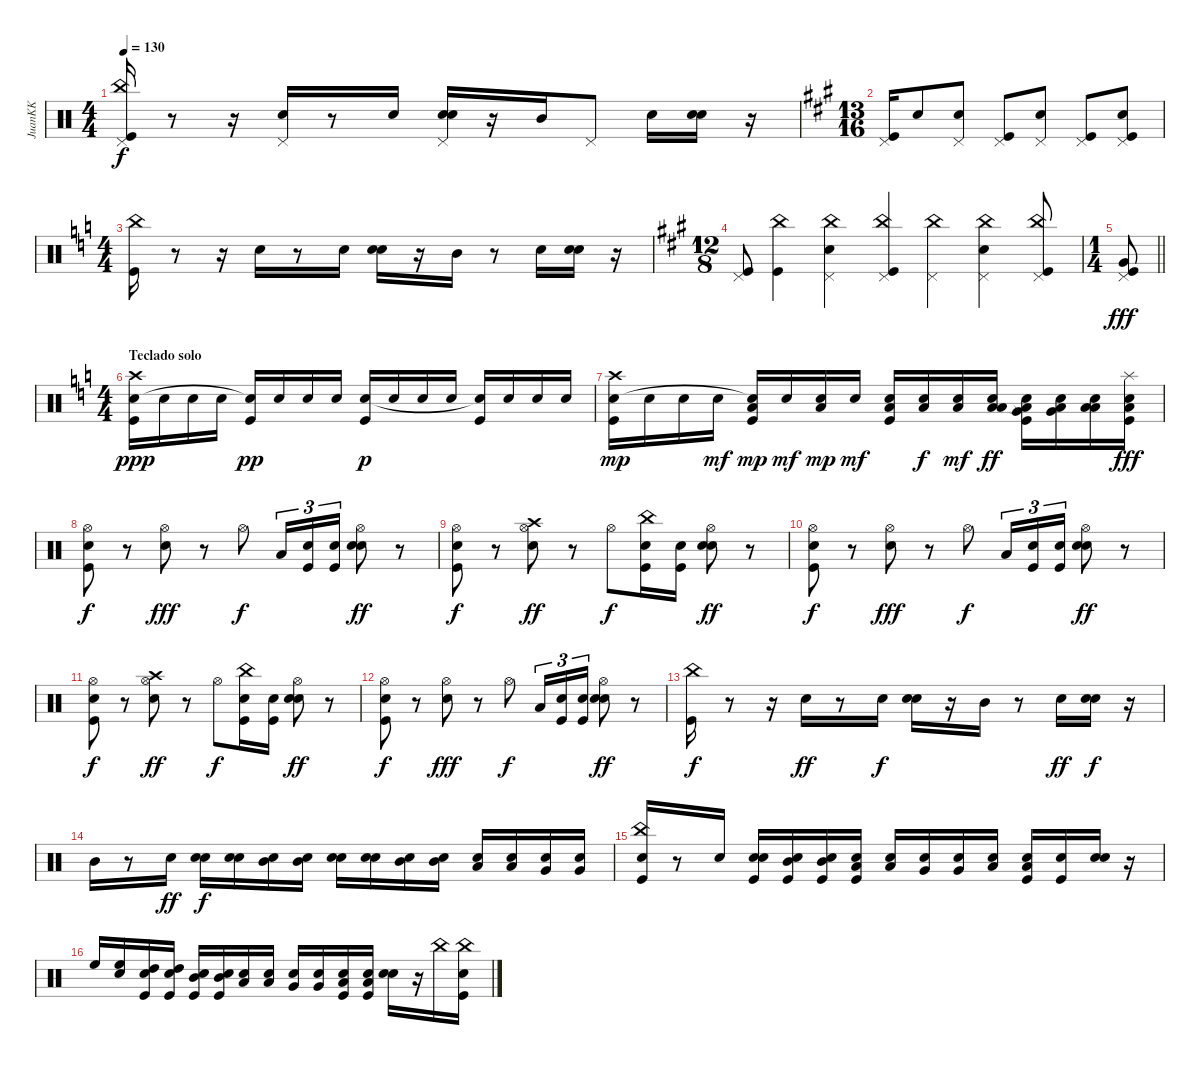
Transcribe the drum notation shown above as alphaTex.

\track ("JuanKK" "JuanKK") {instrument percussion}
\staff {score}
\articulation defaults
\ts (4 4)
\tempo 130
\clef neutral
\ks c
("Kick (hit)" "China (hit)" "Pedal Hi-Hat (hit)").16{dy f} r.8 r.16 ("Electric Snare (hit)" "Pedal Hi-Hat (hit)").16 r.8 "Electric Snare (hit)".16 ("Snare (hit)" "Electric Snare (hit)" "Pedal Hi-Hat (hit)").16 r.16 "Mid Tom (hit)".16 "Pedal Hi-Hat (hit)".8 "Electric Snare (hit)".16 ("Snare (hit)" "Electric Snare (hit)").16 r.16 |
\ts (13 16)
\ks a
("Kick (hit)" "Pedal Hi-Hat (hit)").16 "Electric Snare (hit)".8 ("Electric Snare (hit)" "Pedal Hi-Hat (hit)").8 ("Kick (hit)" "Pedal Hi-Hat (hit)").8 ("Electric Snare (hit)" "Pedal Hi-Hat (hit)").8 ("Kick (hit)" "Pedal Hi-Hat (hit)").8 ("Kick (hit)" "Electric Snare (hit)" "Pedal Hi-Hat (hit)").8 |
\ts (4 4)
\ks c
("Kick (hit)" "China (hit)").16 r.8 r.16 "Electric Snare (hit)".16 r.8 "Electric Snare (hit)".16 ("Snare (hit)" "Electric Snare (hit)").16 r.16 "Mid Tom (hit)".16 r.8 "Electric Snare (hit)".16 ("Snare (hit)" "Electric Snare (hit)").16 r.16 |
\ts (12 8)
\ks a
("Kick (hit)" "Pedal Hi-Hat (hit)").8 ("Kick (hit)" "China (hit)").4 ("Electric Snare (hit)" "Pedal Hi-Hat (hit)" "China (hit)").4 ("Kick (hit)" "Pedal Hi-Hat (hit)" "China (hit)").4 ("Pedal Hi-Hat (hit)" "China (hit)").4 ("Electric Snare (hit)" "Pedal Hi-Hat (hit)" "China (hit)").4 ("Kick (hit)" "Pedal Hi-Hat (hit)" "China (hit)").8 |
\ts (1 4)
\barLineRight lightlight
("Very Low Tom (hit)" "Kick (hit)" "Pedal Hi-Hat (hit)").8{dy fff} |
\ts (4 4)
\section ("" "Teclado solo")
\ks c
("Kick (hit)" "Electric Snare (hit)" "Crash high (hit)").16{dy ppp} "Electric Snare (hit)".16 "Electric Snare (hit)".16 "Electric Snare (hit)".16 ("Kick (hit)" "Snare (hit)"{t}).16{dy pp} "Electric Snare (hit)".16 "Electric Snare (hit)".16 "Electric Snare (hit)".16 ("Kick (hit)" "Electric Snare (hit)").16{dy p} "Electric Snare (hit)".16 "Electric Snare (hit)".16 "Electric Snare (hit)".16 ("Kick (hit)" "Snare (hit)"{t}).16 "Electric Snare (hit)".16 "Electric Snare (hit)".16 "Electric Snare (hit)".16 |
("Kick (hit)" "Electric Snare (hit)" "Crash high (hit)").16{dy mp} "Electric Snare (hit)".16 "Electric Snare (hit)".16 "Electric Snare (hit)".16{dy mf} ("Kick (hit)" "Snare (hit)"{t} "Low Floor Tom (hit)").16{dy mp} "Electric Snare (hit)".16{dy mf} ("Electric Snare (hit)" "Low Floor Tom (hit)").16{dy mp} "Electric Snare (hit)".16{dy mf} ("Kick (hit)" "Electric Snare (hit)" "Low Floor Tom (hit)").16 ("Low Floor Tom (hit)" "Electric Snare (hit)").16{dy f} ("Electric Snare (hit)" "Low Floor Tom (hit)").16{dy mf} ("Low Floor Tom (hit)" "Electric Snare (hit)" "Low Floor Tom (hit)").16{dy ff} ("Kick (hit)" "Very Low Tom (hit)" "Snare (hit)"{t} "Low Floor Tom (hit)").16 ("Very Low Tom (hit)" "Electric Snare (hit)" "Low Floor Tom (hit)").16 ("Low Floor Tom (hit)" "Electric Snare (hit)" "Low Floor Tom (hit)").16 ("Kick (hit)" "Low Floor Tom (hit)" "Electric Snare (hit)" "Splash (hit)").16{dy fff} |
("Snare (hit)" "Kick (hit)" "Hi-Hat (open)").8{dy f} r.8 ("Electric Snare (hit)" "Hi-Hat (open)").8{dy fff} r.8 "Hi-Hat (open)".8{dy f} "Low Floor Tom (hit)".16{tu (3 2)} ("Snare (hit)" "Kick (hit)").16{tu (3 2)} ("Snare (hit)" "Kick (hit)").16{tu (3 2)} ("Snare (hit)" "Electric Snare (hit)" "Hi-Hat (open)").8{dy ff} r.8 |
("Snare (hit)" "Kick (hit)" "Hi-Hat (open)").8{dy f} r.8 ("Electric Snare (hit)" "Hi-Hat (open)" "Crash high (hit)").8{dy ff} r.8 "Hi-Hat (open)".8{dy f} ("Snare (hit)" "Kick (hit)" "China (hit)").16 ("Snare (hit)" "Kick (hit)").16 ("Snare (hit)" "Electric Snare (hit)" "Hi-Hat (open)").8{dy ff} r.8 |
("Snare (hit)" "Kick (hit)" "Hi-Hat (open)").8{dy f} r.8 ("Electric Snare (hit)" "Hi-Hat (open)").8{dy fff} r.8 "Hi-Hat (open)".8{dy f} "Low Floor Tom (hit)".16{tu (3 2)} ("Snare (hit)" "Kick (hit)").16{tu (3 2)} ("Snare (hit)" "Kick (hit)").16{tu (3 2)} ("Snare (hit)" "Electric Snare (hit)" "Hi-Hat (open)").8{dy ff} r.8 |
("Snare (hit)" "Kick (hit)" "Hi-Hat (open)").8{dy f} r.8 ("Electric Snare (hit)" "Hi-Hat (open)" "Crash high (hit)").8{dy ff} r.8 "Hi-Hat (open)".8{dy f} ("Snare (hit)" "Kick (hit)" "China (hit)").16 ("Snare (hit)" "Kick (hit)").16 ("Snare (hit)" "Electric Snare (hit)" "Hi-Hat (open)").8{dy ff} r.8 |
("Snare (hit)" "Kick (hit)" "Hi-Hat (open)").8{dy f} r.8 ("Electric Snare (hit)" "Hi-Hat (open)").8{dy fff} r.8 "Hi-Hat (open)".8{dy f} "Low Floor Tom (hit)".16{tu (3 2)} ("Snare (hit)" "Kick (hit)").16{tu (3 2)} ("Snare (hit)" "Kick (hit)").16{tu (3 2)} ("Snare (hit)" "Electric Snare (hit)" "Hi-Hat (open)").8{dy ff} r.8 |
("Kick (hit)" "China (hit)").16{dy f} r.8 r.16 "Electric Snare (hit)".16{dy ff} r.8 "Electric Snare (hit)".16{dy f} ("Snare (hit)" "Electric Snare (hit)").16 r.16 "Mid Tom (hit)".16 r.8 "Electric Snare (hit)".16{dy ff} ("Snare (hit)" "Snare (hit) 2").16{dy f} r.16 |
"Mid Tom (hit)".16 r.8 "Electric Snare (hit)".16{dy ff} ("Snare (hit)" "Electric Snare (hit)").16{dy f} ("Snare (hit)" "Electric Snare (hit)").16 ("Snare (hit)" "Mid Tom (hit)").16 ("Snare (hit)" "Mid Tom (hit)").16 ("Snare (hit)" "Electric Snare (hit)").16 ("Snare (hit)" "Electric Snare (hit)").16 ("Snare (hit)" "Mid Tom (hit)").16 ("Snare (hit)" "Mid Tom (hit)").16 ("Snare (hit)" "Low Tom (hit)").16 ("Snare (hit)" "Low Tom (hit)").16 ("Snare (hit)" "Very Low Tom (hit)").16 ("Snare (hit)" "Very Low Tom (hit)").16 |
("Snare (hit)" "Kick (hit)" "China (hit)").16 r.8 "Electric Snare (hit)".16 ("Snare (hit)" "Kick (hit)" "Snare (hit) 2").16 ("Snare (hit)" "Kick (hit)" "Mid Tom (hit)").16 ("Snare (hit)" "Kick (hit)" "Mid Tom (hit)").16 ("Snare (hit)" "Kick (hit)" "Low Tom (hit)").16 ("Snare (hit)" "Low Tom (hit)").16 ("Snare (hit)" "Very Low Tom (hit)").16 ("Snare (hit)" "Very Low Tom (hit)").16 ("Snare (hit)" "Low Floor Tom (hit)").16 ("Snare (hit)" "Kick (hit)" "Low Floor Tom (hit)").16 ("Snare (hit)" "Kick (hit)").16 ("Snare (hit)" "Electric Snare (hit)").16 r.16 |
"High Floor Tom (hit)".16 ("Snare (hit)" "High Floor Tom (hit)").16 ("Snare (hit)" "Kick (hit)" "High Tom (hit)").16 ("Snare (hit)" "Kick (hit)" "High Tom (hit)").16 ("Snare (hit)" "Kick (hit)" "Mid Tom (hit)").16 ("Snare (hit)" "Kick (hit)" "Mid Tom (hit)").16 ("Snare (hit)" "Low Tom (hit)").16 ("Snare (hit)" "Low Tom (hit)").16 ("Snare (hit)" "Very Low Tom (hit)").16 ("Snare (hit)" "Very Low Tom (hit)").16 ("Snare (hit)" "Kick (hit)" "Low Floor Tom (hit)").16 ("Snare (hit)" "Kick (hit)" "Low Floor Tom (hit)").16 ("Snare (hit)" "Electric Snare (hit)").16 r.16 "China (hit)".16 ("Kick (hit)" "Electric Snare (hit)" "China (hit)").16
